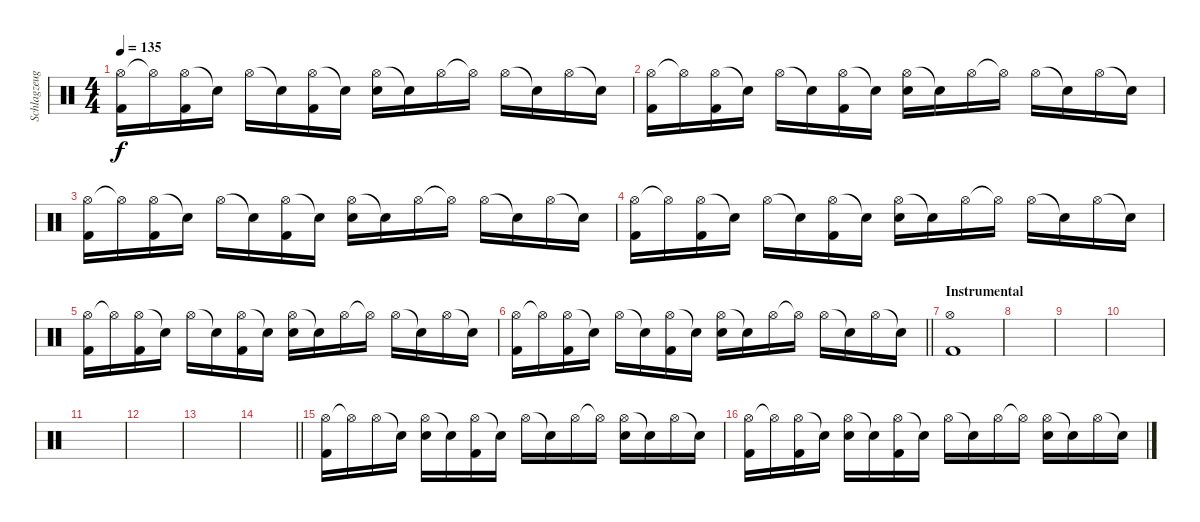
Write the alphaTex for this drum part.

\track ("Schlagzeug" "Schlagzeug") {instrument percussion}
\staff {score}
\articulation defaults
\ts (4 4)
\tempo 135
\clef neutral
\ks c
("Hi-Hat (open)" "Kick (hit) 2").16{dy f} "Hi-Hat (open)"{t}.16 ("Hi-Hat (open)" "Kick (hit) 2").16 "Snare (hit)"{t}.16 "Hi-Hat (open)".16 "Snare (hit)"{t}.16 ("Hi-Hat (open)" "Kick (hit) 2").16 "Snare (hit)"{t}.16 ("Hi-Hat (open)" "Snare (hit) 2").16 "Snare (hit)"{t}.16 "Hi-Hat (open)".16 "Hi-Hat (open)"{t}.16 "Hi-Hat (open)".16 "Snare (hit)"{t}.16 "Hi-Hat (open)".16 "Snare (hit)"{t}.16 |
("Hi-Hat (open)" "Kick (hit) 2").16 "Hi-Hat (open)"{t}.16 ("Hi-Hat (open)" "Kick (hit) 2").16 "Snare (hit)"{t}.16 "Hi-Hat (open)".16 "Snare (hit)"{t}.16 ("Hi-Hat (open)" "Kick (hit) 2").16 "Snare (hit)"{t}.16 ("Hi-Hat (open)" "Snare (hit) 2").16 "Snare (hit)"{t}.16 "Hi-Hat (open)".16 "Hi-Hat (open)"{t}.16 "Hi-Hat (open)".16 "Snare (hit)"{t}.16 "Hi-Hat (open)".16 "Snare (hit)"{t}.16 |
("Hi-Hat (open)" "Kick (hit) 2").16 "Hi-Hat (open)"{t}.16 ("Hi-Hat (open)" "Kick (hit) 2").16 "Snare (hit)"{t}.16 "Hi-Hat (open)".16 "Snare (hit)"{t}.16 ("Hi-Hat (open)" "Kick (hit) 2").16 "Snare (hit)"{t}.16 ("Hi-Hat (open)" "Snare (hit) 2").16 "Snare (hit)"{t}.16 "Hi-Hat (open)".16 "Hi-Hat (open)"{t}.16 "Hi-Hat (open)".16 "Snare (hit)"{t}.16 "Hi-Hat (open)".16 "Snare (hit)"{t}.16 |
("Hi-Hat (open)" "Kick (hit) 2").16 "Hi-Hat (open)"{t}.16 ("Hi-Hat (open)" "Kick (hit) 2").16 "Snare (hit)"{t}.16 "Hi-Hat (open)".16 "Snare (hit)"{t}.16 ("Hi-Hat (open)" "Kick (hit) 2").16 "Snare (hit)"{t}.16 ("Hi-Hat (open)" "Snare (hit) 2").16 "Snare (hit)"{t}.16 "Hi-Hat (open)".16 "Hi-Hat (open)"{t}.16 "Hi-Hat (open)".16 "Snare (hit)"{t}.16 "Hi-Hat (open)".16 "Snare (hit)"{t}.16 |
("Hi-Hat (open)" "Kick (hit) 2").16 "Hi-Hat (open)"{t}.16 ("Hi-Hat (open)" "Kick (hit) 2").16 "Snare (hit)"{t}.16 "Hi-Hat (open)".16 "Snare (hit)"{t}.16 ("Hi-Hat (open)" "Kick (hit) 2").16 "Snare (hit)"{t}.16 ("Hi-Hat (open)" "Snare (hit) 2").16 "Snare (hit)"{t}.16 "Hi-Hat (open)".16 "Hi-Hat (open)"{t}.16 "Hi-Hat (open)".16 "Snare (hit)"{t}.16 "Hi-Hat (open)".16 "Snare (hit)"{t}.16 |
\barLineRight lightlight
("Hi-Hat (open)" "Kick (hit) 2").16 "Hi-Hat (open)"{t}.16 ("Hi-Hat (open)" "Kick (hit) 2").16 "Snare (hit)"{t}.16 "Hi-Hat (open)".16 "Snare (hit)"{t}.16 ("Hi-Hat (open)" "Kick (hit) 2").16 "Snare (hit)"{t}.16 ("Hi-Hat (open)" "Snare (hit) 2").16 "Snare (hit)"{t}.16 "Hi-Hat (open)".16 "Hi-Hat (open)"{t}.16 "Hi-Hat (open)".16 "Snare (hit)"{t}.16 "Hi-Hat (open)".16 "Snare (hit)"{t}.16 |
\section ("" "Instrumental")
("Hi-Hat (open)" "Kick (hit) 2").1 |
|
|
|
|
|
|
\barLineRight lightlight
|
("Hi-Hat (open)" "Kick (hit) 2").16 "Hi-Hat (open)"{t}.16 "Hi-Hat (open)".16 "Snare (hit)"{t}.16 ("Hi-Hat (open)" "Snare (hit) 2").16 "Snare (hit)"{t}.16 ("Hi-Hat (open)" "Kick (hit) 2").16 "Snare (hit)"{t}.16 "Hi-Hat (open)".16 "Snare (hit)"{t}.16 "Hi-Hat (open)".16 "Hi-Hat (open)"{t}.16 ("Hi-Hat (open)" "Snare (hit) 2").16 "Snare (hit)"{t}.16 "Hi-Hat (open)".16 "Snare (hit)"{t}.16 |
("Hi-Hat (open)" "Kick (hit) 2").16 "Hi-Hat (open)"{t}.16 ("Hi-Hat (open)" "Kick (hit) 2").16 "Snare (hit)"{t}.16 ("Hi-Hat (open)" "Snare (hit) 2").16 "Snare (hit)"{t}.16 ("Hi-Hat (open)" "Kick (hit) 2").16 "Snare (hit)"{t}.16 "Hi-Hat (open)".16 "Snare (hit)"{t}.16 "Hi-Hat (open)".16 "Hi-Hat (open)"{t}.16 ("Hi-Hat (open)" "Snare (hit) 2").16 "Snare (hit)"{t}.16 "Hi-Hat (open)".16 "Snare (hit)"{t}.16
